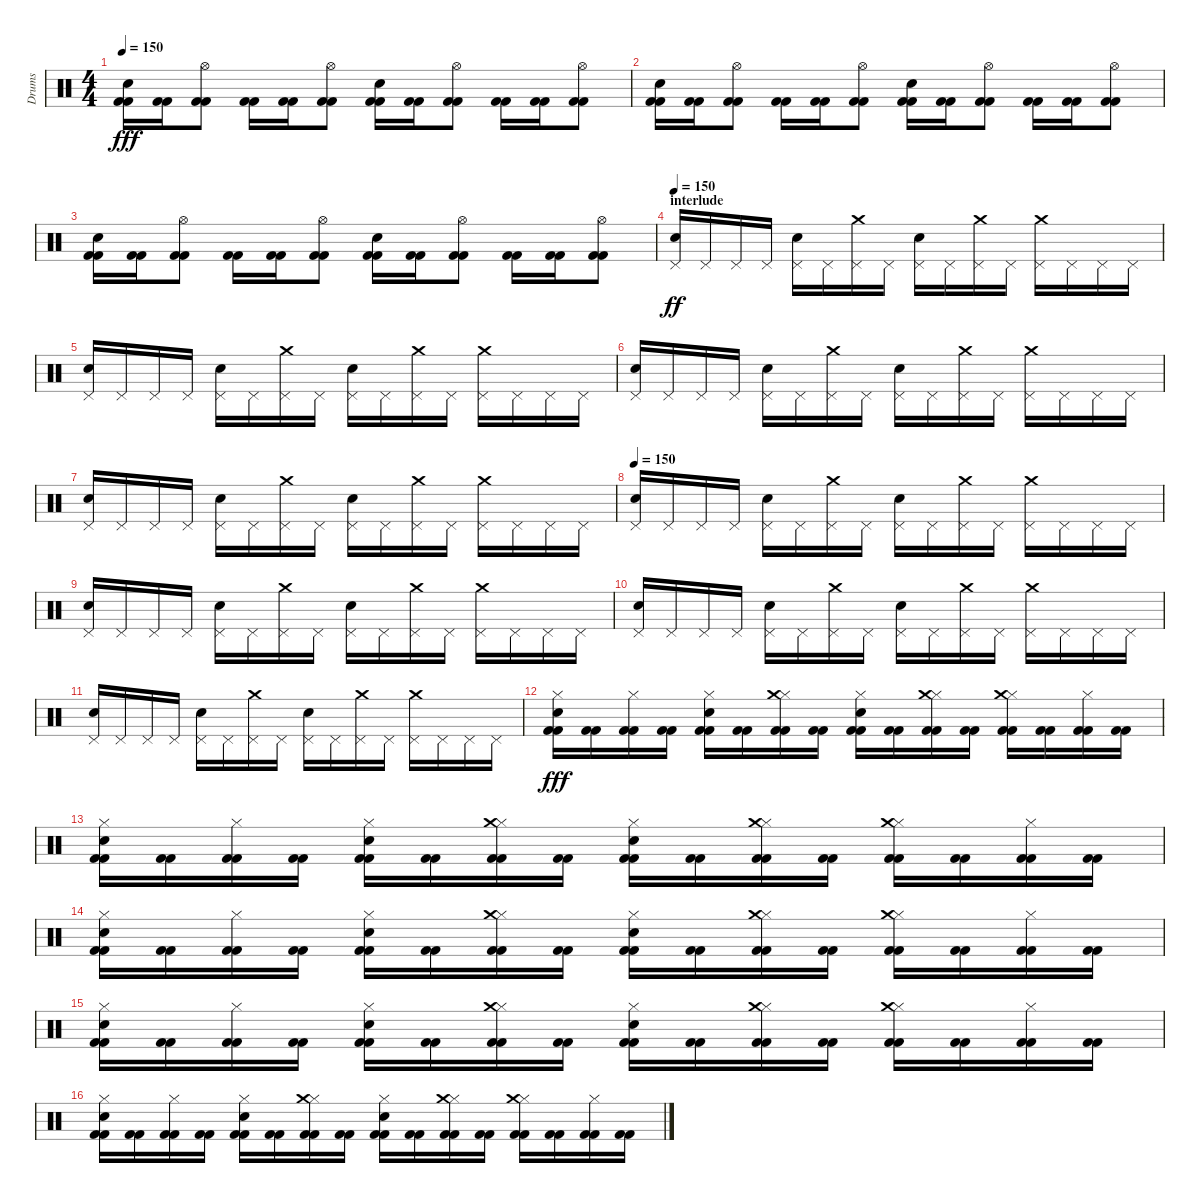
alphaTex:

\track ("Drums" "Drums") {instrument percussion}
\staff {score}
\articulation defaults
\ts (4 4)
\tempo 150
\clef neutral
\ks c
("Electric Snare (hit)" "Kick (hit) 2" "Kick (hit) 2").16{dy fff} ("Kick (hit) 2" "Kick (hit) 2").16 ("Hi-Hat (open)" "Kick (hit) 2" "Kick (hit) 2").8 ("Kick (hit) 2" "Kick (hit) 2").16 ("Kick (hit) 2" "Kick (hit) 2").16 ("Hi-Hat (open)" "Kick (hit) 2" "Kick (hit) 2").8 ("Electric Snare (hit)" "Kick (hit) 2" "Kick (hit) 2").16 ("Kick (hit) 2" "Kick (hit) 2").16 ("Hi-Hat (open)" "Kick (hit) 2" "Kick (hit) 2").8 ("Kick (hit) 2" "Kick (hit) 2").16 ("Kick (hit) 2" "Kick (hit) 2").16 ("Hi-Hat (open)" "Kick (hit) 2" "Kick (hit) 2").8 |
("Electric Snare (hit)" "Kick (hit) 2" "Kick (hit) 2").16 ("Kick (hit) 2" "Kick (hit) 2").16 ("Hi-Hat (open)" "Kick (hit) 2" "Kick (hit) 2").8 ("Kick (hit) 2" "Kick (hit) 2").16 ("Kick (hit) 2" "Kick (hit) 2").16 ("Hi-Hat (open)" "Kick (hit) 2" "Kick (hit) 2").8 ("Electric Snare (hit)" "Kick (hit) 2" "Kick (hit) 2").16 ("Kick (hit) 2" "Kick (hit) 2").16 ("Hi-Hat (open)" "Kick (hit) 2" "Kick (hit) 2").8 ("Kick (hit) 2" "Kick (hit) 2").16 ("Kick (hit) 2" "Kick (hit) 2").16 ("Hi-Hat (open)" "Kick (hit) 2" "Kick (hit) 2").8 |
("Electric Snare (hit)" "Kick (hit) 2" "Kick (hit) 2").16 ("Kick (hit) 2" "Kick (hit) 2").16 ("Hi-Hat (open)" "Kick (hit) 2" "Kick (hit) 2").8 ("Kick (hit) 2" "Kick (hit) 2").16 ("Kick (hit) 2" "Kick (hit) 2").16 ("Hi-Hat (open)" "Kick (hit) 2" "Kick (hit) 2").8 ("Electric Snare (hit)" "Kick (hit) 2" "Kick (hit) 2").16 ("Kick (hit) 2" "Kick (hit) 2").16 ("Hi-Hat (open)" "Kick (hit) 2" "Kick (hit) 2").8 ("Kick (hit) 2" "Kick (hit) 2").16 ("Kick (hit) 2" "Kick (hit) 2").16 ("Hi-Hat (open)" "Kick (hit) 2" "Kick (hit) 2").8 |
\section ("" "interlude")
\tempo 150
("Electric Snare (hit)" "Pedal Hi-Hat (hit)").16{dy ff} "Pedal Hi-Hat (hit)".16 "Pedal Hi-Hat (hit)".16 "Pedal Hi-Hat (hit)".16 ("Electric Snare (hit)" "Pedal Hi-Hat (hit)").16 "Pedal Hi-Hat (hit)".16 ("Crash medium (hit)" "Pedal Hi-Hat (hit)").16 "Pedal Hi-Hat (hit)".16 ("Electric Snare (hit)" "Pedal Hi-Hat (hit)").16 "Pedal Hi-Hat (hit)".16 ("Crash medium (hit)" "Pedal Hi-Hat (hit)").16 "Pedal Hi-Hat (hit)".16 ("Crash medium (hit)" "Pedal Hi-Hat (hit)").16 "Pedal Hi-Hat (hit)".16 "Pedal Hi-Hat (hit)".16 "Pedal Hi-Hat (hit)".16 |
("Electric Snare (hit)" "Pedal Hi-Hat (hit)").16 "Pedal Hi-Hat (hit)".16 "Pedal Hi-Hat (hit)".16 "Pedal Hi-Hat (hit)".16 ("Electric Snare (hit)" "Pedal Hi-Hat (hit)").16 "Pedal Hi-Hat (hit)".16 ("Crash medium (hit)" "Pedal Hi-Hat (hit)").16 "Pedal Hi-Hat (hit)".16 ("Electric Snare (hit)" "Pedal Hi-Hat (hit)").16 "Pedal Hi-Hat (hit)".16 ("Crash medium (hit)" "Pedal Hi-Hat (hit)").16 "Pedal Hi-Hat (hit)".16 ("Crash medium (hit)" "Pedal Hi-Hat (hit)").16 "Pedal Hi-Hat (hit)".16 "Pedal Hi-Hat (hit)".16 "Pedal Hi-Hat (hit)".16 |
("Electric Snare (hit)" "Pedal Hi-Hat (hit)").16 "Pedal Hi-Hat (hit)".16 "Pedal Hi-Hat (hit)".16 "Pedal Hi-Hat (hit)".16 ("Electric Snare (hit)" "Pedal Hi-Hat (hit)").16 "Pedal Hi-Hat (hit)".16 ("Crash medium (hit)" "Pedal Hi-Hat (hit)").16 "Pedal Hi-Hat (hit)".16 ("Electric Snare (hit)" "Pedal Hi-Hat (hit)").16 "Pedal Hi-Hat (hit)".16 ("Crash medium (hit)" "Pedal Hi-Hat (hit)").16 "Pedal Hi-Hat (hit)".16 ("Crash medium (hit)" "Pedal Hi-Hat (hit)").16 "Pedal Hi-Hat (hit)".16 "Pedal Hi-Hat (hit)".16 "Pedal Hi-Hat (hit)".16 |
("Electric Snare (hit)" "Pedal Hi-Hat (hit)").16 "Pedal Hi-Hat (hit)".16 "Pedal Hi-Hat (hit)".16 "Pedal Hi-Hat (hit)".16 ("Electric Snare (hit)" "Pedal Hi-Hat (hit)").16 "Pedal Hi-Hat (hit)".16 ("Crash medium (hit)" "Pedal Hi-Hat (hit)").16 "Pedal Hi-Hat (hit)".16 ("Electric Snare (hit)" "Pedal Hi-Hat (hit)").16 "Pedal Hi-Hat (hit)".16 ("Crash medium (hit)" "Pedal Hi-Hat (hit)").16 "Pedal Hi-Hat (hit)".16 ("Crash medium (hit)" "Pedal Hi-Hat (hit)").16 "Pedal Hi-Hat (hit)".16 "Pedal Hi-Hat (hit)".16 "Pedal Hi-Hat (hit)".16 |
\tempo 150
("Electric Snare (hit)" "Pedal Hi-Hat (hit)").16 "Pedal Hi-Hat (hit)".16 "Pedal Hi-Hat (hit)".16 "Pedal Hi-Hat (hit)".16 ("Electric Snare (hit)" "Pedal Hi-Hat (hit)").16 "Pedal Hi-Hat (hit)".16 ("Crash medium (hit)" "Pedal Hi-Hat (hit)").16 "Pedal Hi-Hat (hit)".16 ("Electric Snare (hit)" "Pedal Hi-Hat (hit)").16 "Pedal Hi-Hat (hit)".16 ("Crash medium (hit)" "Pedal Hi-Hat (hit)").16 "Pedal Hi-Hat (hit)".16 ("Crash medium (hit)" "Pedal Hi-Hat (hit)").16 "Pedal Hi-Hat (hit)".16 "Pedal Hi-Hat (hit)".16 "Pedal Hi-Hat (hit)".16 |
("Electric Snare (hit)" "Pedal Hi-Hat (hit)").16 "Pedal Hi-Hat (hit)".16 "Pedal Hi-Hat (hit)".16 "Pedal Hi-Hat (hit)".16 ("Electric Snare (hit)" "Pedal Hi-Hat (hit)").16 "Pedal Hi-Hat (hit)".16 ("Crash medium (hit)" "Pedal Hi-Hat (hit)").16 "Pedal Hi-Hat (hit)".16 ("Electric Snare (hit)" "Pedal Hi-Hat (hit)").16 "Pedal Hi-Hat (hit)".16 ("Crash medium (hit)" "Pedal Hi-Hat (hit)").16 "Pedal Hi-Hat (hit)".16 ("Crash medium (hit)" "Pedal Hi-Hat (hit)").16 "Pedal Hi-Hat (hit)".16 "Pedal Hi-Hat (hit)".16 "Pedal Hi-Hat (hit)".16 |
("Electric Snare (hit)" "Pedal Hi-Hat (hit)").16 "Pedal Hi-Hat (hit)".16 "Pedal Hi-Hat (hit)".16 "Pedal Hi-Hat (hit)".16 ("Electric Snare (hit)" "Pedal Hi-Hat (hit)").16 "Pedal Hi-Hat (hit)".16 ("Crash medium (hit)" "Pedal Hi-Hat (hit)").16 "Pedal Hi-Hat (hit)".16 ("Electric Snare (hit)" "Pedal Hi-Hat (hit)").16 "Pedal Hi-Hat (hit)".16 ("Crash medium (hit)" "Pedal Hi-Hat (hit)").16 "Pedal Hi-Hat (hit)".16 ("Crash medium (hit)" "Pedal Hi-Hat (hit)").16 "Pedal Hi-Hat (hit)".16 "Pedal Hi-Hat (hit)".16 "Pedal Hi-Hat (hit)".16 |
("Electric Snare (hit)" "Pedal Hi-Hat (hit)").16 "Pedal Hi-Hat (hit)".16 "Pedal Hi-Hat (hit)".16 "Pedal Hi-Hat (hit)".16 ("Electric Snare (hit)" "Pedal Hi-Hat (hit)").16 "Pedal Hi-Hat (hit)".16 ("Crash medium (hit)" "Pedal Hi-Hat (hit)").16 "Pedal Hi-Hat (hit)".16 ("Electric Snare (hit)" "Pedal Hi-Hat (hit)").16 "Pedal Hi-Hat (hit)".16 ("Crash medium (hit)" "Pedal Hi-Hat (hit)").16 "Pedal Hi-Hat (hit)".16 ("Crash medium (hit)" "Pedal Hi-Hat (hit)").16 "Pedal Hi-Hat (hit)".16 "Pedal Hi-Hat (hit)".16 "Pedal Hi-Hat (hit)".16 |
("Hi-Hat (closed)" "Electric Snare (hit)" "Kick (hit) 2" "Kick (hit) 2").16{dy fff} ("Kick (hit) 2" "Kick (hit) 2").16 ("Hi-Hat (closed)" "Kick (hit) 2" "Kick (hit) 2").16 ("Kick (hit) 2" "Kick (hit) 2").16 ("Hi-Hat (closed)" "Electric Snare (hit)" "Kick (hit) 2" "Kick (hit) 2").16 ("Kick (hit) 2" "Kick (hit) 2").16 ("Hi-Hat (closed)" "Crash medium (hit)" "Kick (hit) 2" "Kick (hit) 2").16 ("Kick (hit) 2" "Kick (hit) 2").16 ("Hi-Hat (closed)" "Electric Snare (hit)" "Kick (hit) 2" "Kick (hit) 2").16 ("Kick (hit) 2" "Kick (hit) 2").16 ("Hi-Hat (closed)" "Crash medium (hit)" "Kick (hit) 2" "Kick (hit) 2").16 ("Kick (hit) 2" "Kick (hit) 2").16 ("Hi-Hat (closed)" "Crash medium (hit)" "Kick (hit) 2" "Kick (hit) 2").16 ("Kick (hit) 2" "Kick (hit) 2").16 ("Hi-Hat (closed)" "Kick (hit) 2" "Kick (hit) 2").16 ("Kick (hit) 2" "Kick (hit) 2").16 |
("Hi-Hat (closed)" "Electric Snare (hit)" "Kick (hit) 2" "Kick (hit) 2").16 ("Kick (hit) 2" "Kick (hit) 2").16 ("Hi-Hat (closed)" "Kick (hit) 2" "Kick (hit) 2").16 ("Kick (hit) 2" "Kick (hit) 2").16 ("Hi-Hat (closed)" "Electric Snare (hit)" "Kick (hit) 2" "Kick (hit) 2").16 ("Kick (hit) 2" "Kick (hit) 2").16 ("Hi-Hat (closed)" "Crash medium (hit)" "Kick (hit) 2" "Kick (hit) 2").16 ("Kick (hit) 2" "Kick (hit) 2").16 ("Hi-Hat (closed)" "Electric Snare (hit)" "Kick (hit) 2" "Kick (hit) 2").16 ("Kick (hit) 2" "Kick (hit) 2").16 ("Hi-Hat (closed)" "Crash medium (hit)" "Kick (hit) 2" "Kick (hit) 2").16 ("Kick (hit) 2" "Kick (hit) 2").16 ("Hi-Hat (closed)" "Crash medium (hit)" "Kick (hit) 2" "Kick (hit) 2").16 ("Kick (hit) 2" "Kick (hit) 2").16 ("Hi-Hat (closed)" "Kick (hit) 2" "Kick (hit) 2").16 ("Kick (hit) 2" "Kick (hit) 2").16 |
("Hi-Hat (closed)" "Electric Snare (hit)" "Kick (hit) 2" "Kick (hit) 2").16 ("Kick (hit) 2" "Kick (hit) 2").16 ("Hi-Hat (closed)" "Kick (hit) 2" "Kick (hit) 2").16 ("Kick (hit) 2" "Kick (hit) 2").16 ("Hi-Hat (closed)" "Electric Snare (hit)" "Kick (hit) 2" "Kick (hit) 2").16 ("Kick (hit) 2" "Kick (hit) 2").16 ("Hi-Hat (closed)" "Crash medium (hit)" "Kick (hit) 2" "Kick (hit) 2").16 ("Kick (hit) 2" "Kick (hit) 2").16 ("Hi-Hat (closed)" "Electric Snare (hit)" "Kick (hit) 2" "Kick (hit) 2").16 ("Kick (hit) 2" "Kick (hit) 2").16 ("Hi-Hat (closed)" "Crash medium (hit)" "Kick (hit) 2" "Kick (hit) 2").16 ("Kick (hit) 2" "Kick (hit) 2").16 ("Hi-Hat (closed)" "Crash medium (hit)" "Kick (hit) 2" "Kick (hit) 2").16 ("Kick (hit) 2" "Kick (hit) 2").16 ("Hi-Hat (closed)" "Kick (hit) 2" "Kick (hit) 2").16 ("Kick (hit) 2" "Kick (hit) 2").16 |
("Hi-Hat (closed)" "Electric Snare (hit)" "Kick (hit) 2" "Kick (hit) 2").16 ("Kick (hit) 2" "Kick (hit) 2").16 ("Hi-Hat (closed)" "Kick (hit) 2" "Kick (hit) 2").16 ("Kick (hit) 2" "Kick (hit) 2").16 ("Hi-Hat (closed)" "Electric Snare (hit)" "Kick (hit) 2" "Kick (hit) 2").16 ("Kick (hit) 2" "Kick (hit) 2").16 ("Hi-Hat (closed)" "Crash medium (hit)" "Kick (hit) 2" "Kick (hit) 2").16 ("Kick (hit) 2" "Kick (hit) 2").16 ("Hi-Hat (closed)" "Electric Snare (hit)" "Kick (hit) 2" "Kick (hit) 2").16 ("Kick (hit) 2" "Kick (hit) 2").16 ("Hi-Hat (closed)" "Crash medium (hit)" "Kick (hit) 2" "Kick (hit) 2").16 ("Kick (hit) 2" "Kick (hit) 2").16 ("Hi-Hat (closed)" "Crash medium (hit)" "Kick (hit) 2" "Kick (hit) 2").16 ("Kick (hit) 2" "Kick (hit) 2").16 ("Hi-Hat (closed)" "Kick (hit) 2" "Kick (hit) 2").16 ("Kick (hit) 2" "Kick (hit) 2").16 |
("Hi-Hat (closed)" "Electric Snare (hit)" "Kick (hit) 2" "Kick (hit) 2").16 ("Kick (hit) 2" "Kick (hit) 2").16 ("Hi-Hat (closed)" "Kick (hit) 2" "Kick (hit) 2").16 ("Kick (hit) 2" "Kick (hit) 2").16 ("Hi-Hat (closed)" "Electric Snare (hit)" "Kick (hit) 2" "Kick (hit) 2").16 ("Kick (hit) 2" "Kick (hit) 2").16 ("Hi-Hat (closed)" "Crash medium (hit)" "Kick (hit) 2" "Kick (hit) 2").16 ("Kick (hit) 2" "Kick (hit) 2").16 ("Hi-Hat (closed)" "Electric Snare (hit)" "Kick (hit) 2" "Kick (hit) 2").16 ("Kick (hit) 2" "Kick (hit) 2").16 ("Hi-Hat (closed)" "Crash medium (hit)" "Kick (hit) 2" "Kick (hit) 2").16 ("Kick (hit) 2" "Kick (hit) 2").16 ("Hi-Hat (closed)" "Crash medium (hit)" "Kick (hit) 2" "Kick (hit) 2").16 ("Kick (hit) 2" "Kick (hit) 2").16 ("Hi-Hat (closed)" "Kick (hit) 2" "Kick (hit) 2").16 ("Kick (hit) 2" "Kick (hit) 2").16
